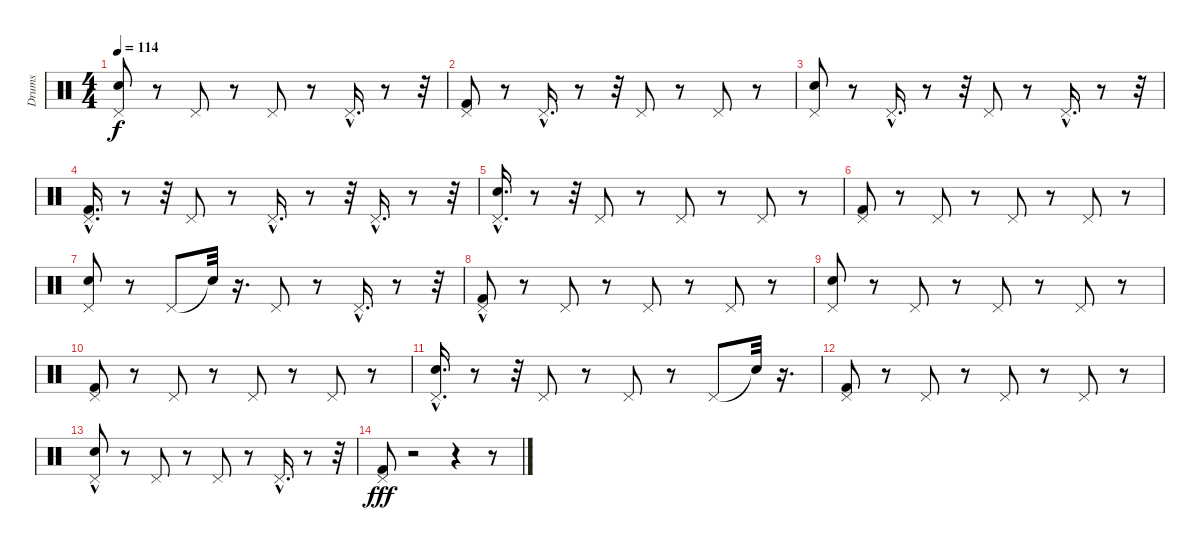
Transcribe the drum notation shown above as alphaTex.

\track ("Drums" "Drums") {instrument percussion}
\staff {score}
\articulation defaults
\ts (4 4)
\tempo 114
\clef neutral
\ks c
("Pedal Hi-Hat (hit)" "Snare (hit) 2").8{dy f} r.8 "Pedal Hi-Hat (hit)".8 r.8 "Pedal Hi-Hat (hit)".8 r.8 "Pedal Hi-Hat (hit)"{hac}.16{d} r.8 r.32 |
("Pedal Hi-Hat (hit)" "Kick (hit) 2").8 r.8 "Pedal Hi-Hat (hit)"{hac}.16{d} r.8 r.32 "Pedal Hi-Hat (hit)".8 r.8 "Pedal Hi-Hat (hit)".8 r.8 |
("Pedal Hi-Hat (hit)" "Snare (hit) 2").8 r.8 "Pedal Hi-Hat (hit)"{hac}.16{d} r.8 r.32 "Pedal Hi-Hat (hit)".8 r.8 "Pedal Hi-Hat (hit)"{hac}.16{d} r.8 r.32 |
("Pedal Hi-Hat (hit)"{hac} "Kick (hit) 2"{hac}).16{d} r.8 r.32 "Pedal Hi-Hat (hit)".8 r.8 "Pedal Hi-Hat (hit)"{hac}.16{d} r.8 r.32 "Pedal Hi-Hat (hit)"{hac}.16{d} r.8 r.32 |
("Pedal Hi-Hat (hit)"{hac} "Snare (hit) 2"{hac}).16{d} r.8 r.32 "Pedal Hi-Hat (hit)".8 r.8 "Pedal Hi-Hat (hit)".8 r.8 "Pedal Hi-Hat (hit)".8 r.8 |
("Pedal Hi-Hat (hit)" "Kick (hit) 2").8 r.8 "Pedal Hi-Hat (hit)".8 r.8 "Pedal Hi-Hat (hit)".8 r.8 "Pedal Hi-Hat (hit)".8 r.8 |
("Pedal Hi-Hat (hit)" "Snare (hit) 2").8 r.8 "Pedal Hi-Hat (hit)".8 "Snare (hit)"{t}.32 r.16{d} "Pedal Hi-Hat (hit)".8 r.8 "Pedal Hi-Hat (hit)"{hac}.16{d} r.8 r.32 |
("Pedal Hi-Hat (hit)"{hac} "Kick (hit) 2").8 r.8 "Pedal Hi-Hat (hit)".8 r.8 "Pedal Hi-Hat (hit)".8 r.8 "Pedal Hi-Hat (hit)".8 r.8 |
("Snare (hit) 2" "Pedal Hi-Hat (hit)").8 r.8 "Pedal Hi-Hat (hit)".8 r.8 "Pedal Hi-Hat (hit)".8 r.8 "Pedal Hi-Hat (hit)".8 r.8 |
("Kick (hit) 2" "Pedal Hi-Hat (hit)").8 r.8 "Pedal Hi-Hat (hit)".8 r.8 "Pedal Hi-Hat (hit)".8 r.8 "Pedal Hi-Hat (hit)".8 r.8 |
("Pedal Hi-Hat (hit)"{hac} "Snare (hit) 2"{hac}).16{d} r.8 r.32 "Pedal Hi-Hat (hit)".8 r.8 "Pedal Hi-Hat (hit)".8 r.8 "Pedal Hi-Hat (hit)".8 "Snare (hit)"{t}.32 r.16{d} |
("Pedal Hi-Hat (hit)" "Kick (hit) 2").8 r.8 "Pedal Hi-Hat (hit)".8 r.8 "Pedal Hi-Hat (hit)".8 r.8 "Pedal Hi-Hat (hit)".8 r.8 |
("Snare (hit) 2" "Pedal Hi-Hat (hit)"{hac}).8 r.8 "Pedal Hi-Hat (hit)".8 r.8 "Pedal Hi-Hat (hit)".8 r.8 "Pedal Hi-Hat (hit)"{hac}.16{d} r.8 r.32 |
("Pedal Hi-Hat (hit)" "Kick (hit) 2").8{dy fff} r.2 r.4 r.8
